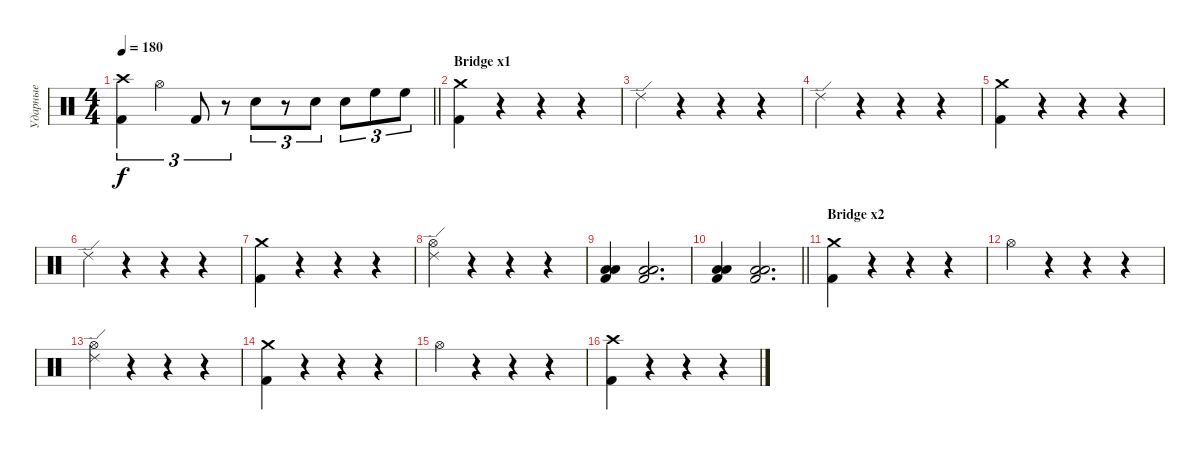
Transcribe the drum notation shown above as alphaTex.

\track ("Ударные" "Ударные") {instrument percussion}
\staff {score}
\articulation defaults
\ts (4 4)
\tempo 180
\clef neutral
\barLineRight lightlight
\ks c
("Crash high (hit)" "Kick (hit) 2").4{tu (3 2) dy f} "Hi-Hat (open)".4{tu (3 2)} "Kick (hit) 2".8{tu (3 2)} r.8{tu (3 2)} "Electric Snare (hit)".8{tu (3 2)} r.8{tu (3 2)} "Electric Snare (hit)".8{tu (3 2)} "Electric Snare (hit)".8{tu (3 2)} "High Floor Tom (hit)".8{tu (3 2)} "High Floor Tom (hit)".8{tu (3 2)} |
\section ("" "Bridge x1")
("Crash medium (hit)" "Kick (hit) 2").4 r.4 r.4 r.4 |
"Ride (edge) 2".4 r.4 r.4 r.4 |
"Ride (edge) 2".4 r.4 r.4 r.4 |
("Crash medium (hit)" "Kick (hit) 2").4 r.4 r.4 r.4 |
"Ride (edge) 2".4 r.4 r.4 r.4 |
("Crash medium (hit)" "Kick (hit) 2").4 r.4 r.4 r.4 |
("Hi-Hat (open)" "Ride (edge) 2").4 r.4 r.4 r.4 |
("Low Tom (hit)" "Low Floor Tom (hit)" "Kick (hit) 2").4 ("Low Tom (hit)" "Low Floor Tom (hit)" "Kick (hit) 2").2{d} |
\barLineRight lightlight
("Low Tom (hit)" "Low Floor Tom (hit)" "Kick (hit) 2").4 ("Low Tom (hit)" "Low Floor Tom (hit)" "Kick (hit) 2").2{d} |
\section ("" "Bridge x2")
("Crash medium (hit)" "Kick (hit) 2").4 r.4 r.4 r.4 |
"Hi-Hat (open)".4 r.4 r.4 r.4 |
("Ride (edge) 2" "Hi-Hat (open)").4 r.4 r.4 r.4 |
("Crash medium (hit)" "Kick (hit) 2").4 r.4 r.4 r.4 |
"Hi-Hat (open)".4 r.4 r.4 r.4 |
("Crash high (hit)" "Kick (hit) 2").4 r.4 r.4 r.4
